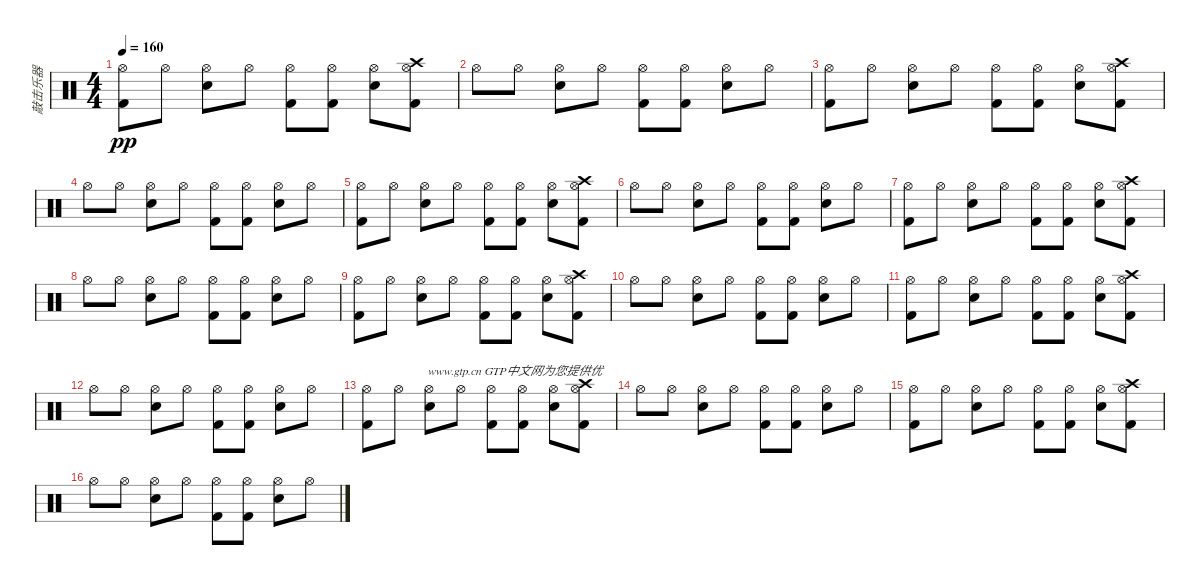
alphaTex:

\track ("敲击乐器" "敲击乐器") {instrument percussion}
\staff {score}
\articulation defaults
\ts (4 4)
\tempo 160
\clef neutral
\ks c
("Hi-Hat (open)" "Kick (hit) 2").8{dy pp} "Hi-Hat (open)".8 ("Snare (hit) 2" "Hi-Hat (open)").8 "Hi-Hat (open)".8 ("Hi-Hat (open)" "Kick (hit) 2").8 ("Hi-Hat (open)" "Kick (hit) 2").8 ("Snare (hit) 2" "Hi-Hat (open)").8 ("Crash high (hit)" "Hi-Hat (open)" "Kick (hit) 2").8 |
"Hi-Hat (open)".8 "Hi-Hat (open)".8 ("Snare (hit) 2" "Hi-Hat (open)").8 "Hi-Hat (open)".8 ("Hi-Hat (open)" "Kick (hit) 2").8 ("Hi-Hat (open)" "Kick (hit) 2").8 ("Snare (hit) 2" "Hi-Hat (open)").8 "Hi-Hat (open)".8 |
("Hi-Hat (open)" "Kick (hit) 2").8 "Hi-Hat (open)".8 ("Snare (hit) 2" "Hi-Hat (open)").8 "Hi-Hat (open)".8 ("Hi-Hat (open)" "Kick (hit) 2").8 ("Hi-Hat (open)" "Kick (hit) 2").8 ("Snare (hit) 2" "Hi-Hat (open)").8 ("Crash high (hit)" "Hi-Hat (open)" "Kick (hit) 2").8 |
"Hi-Hat (open)".8 "Hi-Hat (open)".8 ("Snare (hit) 2" "Hi-Hat (open)").8 "Hi-Hat (open)".8 ("Hi-Hat (open)" "Kick (hit) 2").8 ("Hi-Hat (open)" "Kick (hit) 2").8 ("Snare (hit) 2" "Hi-Hat (open)").8 "Hi-Hat (open)".8 |
("Hi-Hat (open)" "Kick (hit) 2").8 "Hi-Hat (open)".8 ("Snare (hit) 2" "Hi-Hat (open)").8 "Hi-Hat (open)".8 ("Hi-Hat (open)" "Kick (hit) 2").8 ("Hi-Hat (open)" "Kick (hit) 2").8 ("Snare (hit) 2" "Hi-Hat (open)").8 ("Crash high (hit)" "Hi-Hat (open)" "Kick (hit) 2").8 |
"Hi-Hat (open)".8 "Hi-Hat (open)".8 ("Snare (hit) 2" "Hi-Hat (open)").8 "Hi-Hat (open)".8 ("Hi-Hat (open)" "Kick (hit) 2").8 ("Hi-Hat (open)" "Kick (hit) 2").8 ("Snare (hit) 2" "Hi-Hat (open)").8 "Hi-Hat (open)".8 |
("Hi-Hat (open)" "Kick (hit) 2").8 "Hi-Hat (open)".8 ("Snare (hit) 2" "Hi-Hat (open)").8 "Hi-Hat (open)".8 ("Hi-Hat (open)" "Kick (hit) 2").8 ("Hi-Hat (open)" "Kick (hit) 2").8 ("Snare (hit) 2" "Hi-Hat (open)").8 ("Crash high (hit)" "Hi-Hat (open)" "Kick (hit) 2").8 |
"Hi-Hat (open)".8 "Hi-Hat (open)".8 ("Snare (hit) 2" "Hi-Hat (open)").8 "Hi-Hat (open)".8 ("Hi-Hat (open)" "Kick (hit) 2").8 ("Hi-Hat (open)" "Kick (hit) 2").8 ("Snare (hit) 2" "Hi-Hat (open)").8 "Hi-Hat (open)".8 |
("Hi-Hat (open)" "Kick (hit) 2").8 "Hi-Hat (open)".8 ("Snare (hit) 2" "Hi-Hat (open)").8 "Hi-Hat (open)".8 ("Hi-Hat (open)" "Kick (hit) 2").8 ("Hi-Hat (open)" "Kick (hit) 2").8 ("Snare (hit) 2" "Hi-Hat (open)").8 ("Crash high (hit)" "Hi-Hat (open)" "Kick (hit) 2").8 |
"Hi-Hat (open)".8 "Hi-Hat (open)".8 ("Snare (hit) 2" "Hi-Hat (open)").8 "Hi-Hat (open)".8 ("Hi-Hat (open)" "Kick (hit) 2").8 ("Hi-Hat (open)" "Kick (hit) 2").8 ("Snare (hit) 2" "Hi-Hat (open)").8 "Hi-Hat (open)".8 |
("Hi-Hat (open)" "Kick (hit) 2").8 "Hi-Hat (open)".8 ("Snare (hit) 2" "Hi-Hat (open)").8 "Hi-Hat (open)".8 ("Hi-Hat (open)" "Kick (hit) 2").8 ("Hi-Hat (open)" "Kick (hit) 2").8 ("Snare (hit) 2" "Hi-Hat (open)").8 ("Crash high (hit)" "Hi-Hat (open)" "Kick (hit) 2").8 |
"Hi-Hat (open)".8 "Hi-Hat (open)".8 ("Snare (hit) 2" "Hi-Hat (open)").8 "Hi-Hat (open)".8 ("Hi-Hat (open)" "Kick (hit) 2").8 ("Hi-Hat (open)" "Kick (hit) 2").8 ("Snare (hit) 2" "Hi-Hat (open)").8 "Hi-Hat (open)".8 |
("Hi-Hat (open)" "Kick (hit) 2").8{txt "                    www.gtp.cn GTP中文网为您提供优"} "Hi-Hat (open)".8 ("Snare (hit) 2" "Hi-Hat (open)").8 "Hi-Hat (open)".8 ("Hi-Hat (open)" "Kick (hit) 2").8 ("Hi-Hat (open)" "Kick (hit) 2").8 ("Snare (hit) 2" "Hi-Hat (open)").8 ("Crash high (hit)" "Hi-Hat (open)" "Kick (hit) 2").8 |
"Hi-Hat (open)".8 "Hi-Hat (open)".8 ("Snare (hit) 2" "Hi-Hat (open)").8 "Hi-Hat (open)".8 ("Hi-Hat (open)" "Kick (hit) 2").8 ("Hi-Hat (open)" "Kick (hit) 2").8 ("Snare (hit) 2" "Hi-Hat (open)").8 "Hi-Hat (open)".8 |
("Hi-Hat (open)" "Kick (hit) 2").8 "Hi-Hat (open)".8 ("Snare (hit) 2" "Hi-Hat (open)").8 "Hi-Hat (open)".8 ("Hi-Hat (open)" "Kick (hit) 2").8 ("Hi-Hat (open)" "Kick (hit) 2").8 ("Snare (hit) 2" "Hi-Hat (open)").8 ("Crash high (hit)" "Hi-Hat (open)" "Kick (hit) 2").8 |
"Hi-Hat (open)".8 "Hi-Hat (open)".8 ("Snare (hit) 2" "Hi-Hat (open)").8 "Hi-Hat (open)".8 ("Hi-Hat (open)" "Kick (hit) 2").8 ("Hi-Hat (open)" "Kick (hit) 2").8 ("Snare (hit) 2" "Hi-Hat (open)").8 "Hi-Hat (open)".8
